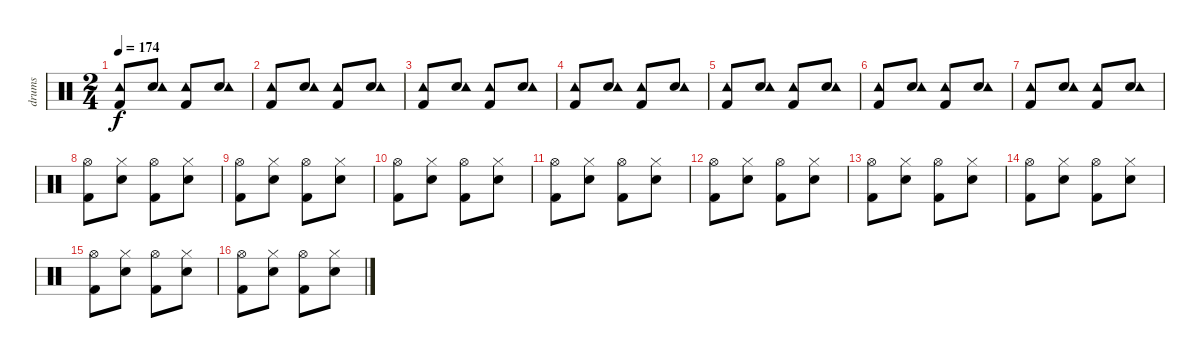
\track ("drums" "drums") {instrument percussion}
\staff {score}
\articulation defaults
\ts (2 4)
\tempo 174
\clef neutral
\ks c
("Tambourine (hit)" "Kick (hit) 2").8{dy f} ("Snare (hit) 2" "Tambourine (hit)").8 ("Kick (hit) 2" "Tambourine (hit)").8 ("Snare (hit) 2" "Tambourine (hit)").8 |
("Tambourine (hit)" "Kick (hit) 2").8 ("Snare (hit) 2" "Tambourine (hit)").8 ("Kick (hit) 2" "Tambourine (hit)").8 ("Snare (hit) 2" "Tambourine (hit)").8 |
("Tambourine (hit)" "Kick (hit) 2").8 ("Snare (hit) 2" "Tambourine (hit)").8 ("Kick (hit) 2" "Tambourine (hit)").8 ("Snare (hit) 2" "Tambourine (hit)").8 |
("Tambourine (hit)" "Kick (hit) 2").8 ("Snare (hit) 2" "Tambourine (hit)").8 ("Kick (hit) 2" "Tambourine (hit)").8 ("Snare (hit) 2" "Tambourine (hit)").8 |
("Tambourine (hit)" "Kick (hit) 2").8 ("Snare (hit) 2" "Tambourine (hit)").8 ("Kick (hit) 2" "Tambourine (hit)").8 ("Snare (hit) 2" "Tambourine (hit)").8 |
("Tambourine (hit)" "Kick (hit) 2").8 ("Snare (hit) 2" "Tambourine (hit)").8 ("Kick (hit) 2" "Tambourine (hit)").8 ("Snare (hit) 2" "Tambourine (hit)").8 |
("Tambourine (hit)" "Kick (hit) 2").8 ("Snare (hit) 2" "Tambourine (hit)").8 ("Kick (hit) 2" "Tambourine (hit)").8 ("Snare (hit) 2" "Tambourine (hit)").8 |
("Hi-Hat (open)" "Kick (hit) 2").8 ("Snare (hit) 2" "Hi-Hat (closed)").8 ("Kick (hit) 2" "Hi-Hat (open)").8 ("Snare (hit) 2" "Hi-Hat (closed)").8 |
("Kick (hit) 2" "Hi-Hat (open)").8 ("Snare (hit) 2" "Hi-Hat (closed)").8 ("Kick (hit) 2" "Hi-Hat (open)").8 ("Snare (hit) 2" "Hi-Hat (closed)").8 |
("Kick (hit) 2" "Hi-Hat (open)").8 ("Snare (hit) 2" "Hi-Hat (closed)").8 ("Kick (hit) 2" "Hi-Hat (open)").8 ("Snare (hit) 2" "Hi-Hat (closed)").8 |
("Kick (hit) 2" "Hi-Hat (open)").8 ("Snare (hit) 2" "Hi-Hat (closed)").8 ("Kick (hit) 2" "Hi-Hat (open)").8 ("Snare (hit) 2" "Hi-Hat (closed)").8 |
("Hi-Hat (open)" "Kick (hit) 2").8 ("Snare (hit) 2" "Hi-Hat (closed)").8 ("Kick (hit) 2" "Hi-Hat (open)").8 ("Snare (hit) 2" "Hi-Hat (closed)").8 |
("Kick (hit) 2" "Hi-Hat (open)").8 ("Snare (hit) 2" "Hi-Hat (closed)").8 ("Kick (hit) 2" "Hi-Hat (open)").8 ("Snare (hit) 2" "Hi-Hat (closed)").8 |
("Kick (hit) 2" "Hi-Hat (open)").8 ("Snare (hit) 2" "Hi-Hat (closed)").8 ("Kick (hit) 2" "Hi-Hat (open)").8 ("Snare (hit) 2" "Hi-Hat (closed)").8 |
("Kick (hit) 2" "Hi-Hat (open)").8 ("Snare (hit) 2" "Hi-Hat (closed)").8 ("Kick (hit) 2" "Hi-Hat (open)").8 ("Snare (hit) 2" "Hi-Hat (closed)").8 |
("Hi-Hat (open)" "Kick (hit) 2").8 ("Snare (hit) 2" "Hi-Hat (closed)").8 ("Kick (hit) 2" "Hi-Hat (open)").8 ("Snare (hit) 2" "Hi-Hat (closed)").8
